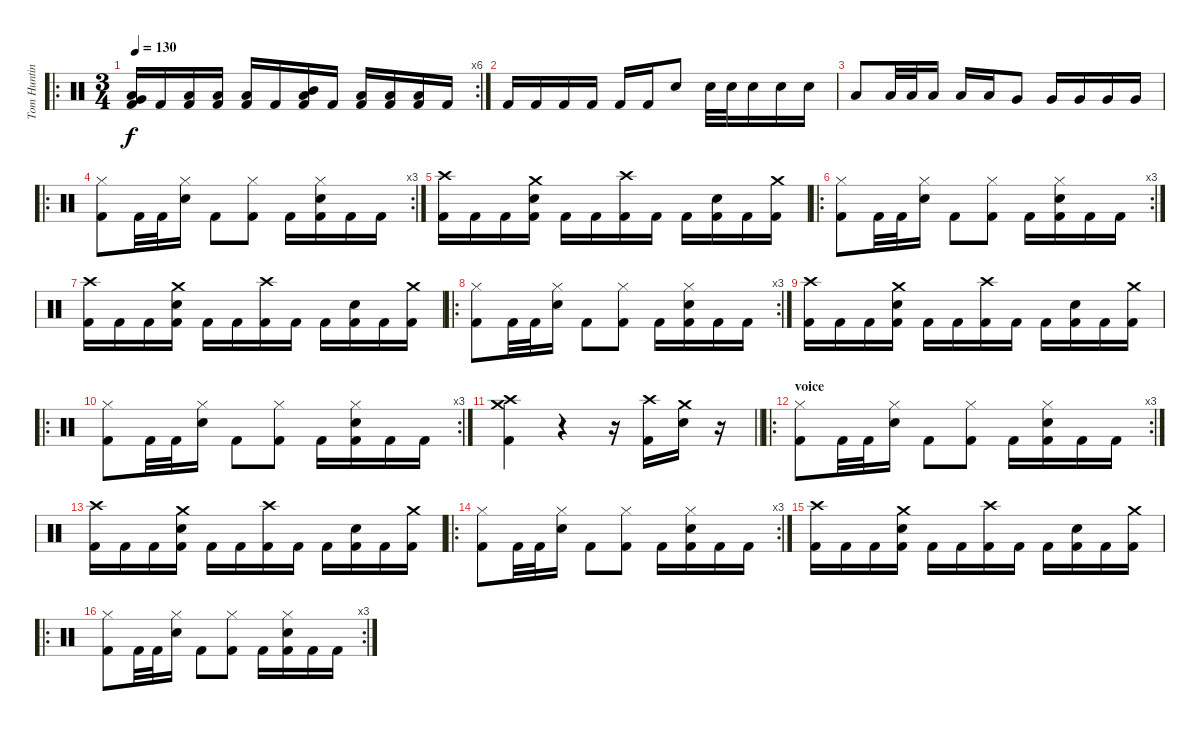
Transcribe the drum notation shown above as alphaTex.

\track ("Tom Hunting" "Tom Huntin") {instrument percussion}
\staff {score}
\articulation defaults
\ro
\rc 6
\ts (3 4)
\tempo 130
\clef neutral
\ks c
("Low Tom (hit)" "Very Low Tom (hit)" "Kick (hit) 2").16{dy f} "Kick (hit) 2".16 ("Low Tom (hit)" "Kick (hit) 2").16 ("Low Tom (hit)" "Kick (hit) 2").16 ("Low Tom (hit)" "Kick (hit) 2").16 "Kick (hit) 2".16 ("Low Tom (hit)" "Mid Tom (hit)" "Kick (hit) 2").16 "Kick (hit) 2".16 ("Low Tom (hit)" "Kick (hit) 2").16 ("Low Tom (hit)" "Kick (hit) 2").16 ("Low Tom (hit)" "Kick (hit) 2").16 "Kick (hit) 2".16 |
"Kick (hit) 2".16 "Kick (hit) 2".16 "Kick (hit) 2".16 "Kick (hit) 2".16 "Kick (hit) 2".16 "Kick (hit) 2".16 "Electric Snare (hit)".8 "Electric Snare (hit)".32 "Electric Snare (hit)".32 "Electric Snare (hit)".16 "Electric Snare (hit)".16 "Electric Snare (hit)".16 |
"Low Tom (hit)".8 "Low Tom (hit)".32 "Low Tom (hit)".32 "Low Tom (hit)".16 "Low Tom (hit)".16 "Low Tom (hit)".16 "Very Low Tom (hit)".8 "Very Low Tom (hit)".16 "Very Low Tom (hit)".16 "Very Low Tom (hit)".16 "Very Low Tom (hit)".16 |
\ro
\rc 3
("Hi-Hat (closed)" "Kick (hit) 2").8 "Kick (hit) 2".32 "Kick (hit) 2".32 ("Hi-Hat (closed)" "Electric Snare (hit)").16 "Kick (hit) 2".8 ("Hi-Hat (closed)" "Kick (hit) 2").8 "Kick (hit) 2".16 ("Hi-Hat (closed)" "Electric Snare (hit)" "Kick (hit) 2").16 "Kick (hit) 2".16 "Kick (hit) 2".16 |
("Crash high (hit)" "Kick (hit) 2").16 "Kick (hit) 2".16 "Kick (hit) 2".16 ("Crash medium (hit)" "Electric Snare (hit)" "Kick (hit) 2").16 "Kick (hit) 2".16 "Kick (hit) 2".16 ("Crash high (hit)" "Kick (hit) 2").16 "Kick (hit) 2".16 "Kick (hit) 2".16 ("Electric Snare (hit)" "Kick (hit) 2").16 "Kick (hit) 2".16 ("Crash medium (hit)" "Kick (hit) 2").16 |
\ro
\rc 3
("Hi-Hat (closed)" "Kick (hit) 2").8 "Kick (hit) 2".32 "Kick (hit) 2".32 ("Hi-Hat (closed)" "Electric Snare (hit)").16 "Kick (hit) 2".8 ("Hi-Hat (closed)" "Kick (hit) 2").8 "Kick (hit) 2".16 ("Hi-Hat (closed)" "Electric Snare (hit)" "Kick (hit) 2").16 "Kick (hit) 2".16 "Kick (hit) 2".16 |
("Crash high (hit)" "Kick (hit) 2").16 "Kick (hit) 2".16 "Kick (hit) 2".16 ("Crash medium (hit)" "Electric Snare (hit)" "Kick (hit) 2").16 "Kick (hit) 2".16 "Kick (hit) 2".16 ("Crash high (hit)" "Kick (hit) 2").16 "Kick (hit) 2".16 "Kick (hit) 2".16 ("Electric Snare (hit)" "Kick (hit) 2").16 "Kick (hit) 2".16 ("Crash medium (hit)" "Kick (hit) 2").16 |
\ro
\rc 3
("Hi-Hat (closed)" "Kick (hit) 2").8 "Kick (hit) 2".32 "Kick (hit) 2".32 ("Hi-Hat (closed)" "Electric Snare (hit)").16 "Kick (hit) 2".8 ("Hi-Hat (closed)" "Kick (hit) 2").8 "Kick (hit) 2".16 ("Hi-Hat (closed)" "Electric Snare (hit)" "Kick (hit) 2").16 "Kick (hit) 2".16 "Kick (hit) 2".16 |
("Crash high (hit)" "Kick (hit) 2").16 "Kick (hit) 2".16 "Kick (hit) 2".16 ("Crash medium (hit)" "Electric Snare (hit)" "Kick (hit) 2").16 "Kick (hit) 2".16 "Kick (hit) 2".16 ("Crash high (hit)" "Kick (hit) 2").16 "Kick (hit) 2".16 "Kick (hit) 2".16 ("Electric Snare (hit)" "Kick (hit) 2").16 "Kick (hit) 2".16 ("Crash medium (hit)" "Kick (hit) 2").16 |
\ro
\rc 3
("Hi-Hat (closed)" "Kick (hit) 2").8 "Kick (hit) 2".32 "Kick (hit) 2".32 ("Hi-Hat (closed)" "Electric Snare (hit)").16 "Kick (hit) 2".8 ("Hi-Hat (closed)" "Kick (hit) 2").8 "Kick (hit) 2".16 ("Hi-Hat (closed)" "Electric Snare (hit)" "Kick (hit) 2").16 "Kick (hit) 2".16 "Kick (hit) 2".16 |
\barLineRight lightlight
("Crash medium (hit)" "Crash high (hit)" "Kick (hit) 2").4 r.4 r.16 ("Crash high (hit)" "Kick (hit) 2").16 ("Crash medium (hit)" "Electric Snare (hit)").16 r.16 |
\ro
\rc 3
\section ("" "voice")
("Hi-Hat (closed)" "Kick (hit) 2").8 "Kick (hit) 2".32 "Kick (hit) 2".32 ("Hi-Hat (closed)" "Electric Snare (hit)").16 "Kick (hit) 2".8 ("Hi-Hat (closed)" "Kick (hit) 2").8 "Kick (hit) 2".16 ("Hi-Hat (closed)" "Electric Snare (hit)" "Kick (hit) 2").16 "Kick (hit) 2".16 "Kick (hit) 2".16 |
("Crash high (hit)" "Kick (hit) 2").16 "Kick (hit) 2".16 "Kick (hit) 2".16 ("Crash medium (hit)" "Electric Snare (hit)" "Kick (hit) 2").16 "Kick (hit) 2".16 "Kick (hit) 2".16 ("Crash high (hit)" "Kick (hit) 2").16 "Kick (hit) 2".16 "Kick (hit) 2".16 ("Electric Snare (hit)" "Kick (hit) 2").16 "Kick (hit) 2".16 ("Crash medium (hit)" "Kick (hit) 2").16 |
\ro
\rc 3
("Hi-Hat (closed)" "Kick (hit) 2").8 "Kick (hit) 2".32 "Kick (hit) 2".32 ("Hi-Hat (closed)" "Electric Snare (hit)").16 "Kick (hit) 2".8 ("Hi-Hat (closed)" "Kick (hit) 2").8 "Kick (hit) 2".16 ("Hi-Hat (closed)" "Electric Snare (hit)" "Kick (hit) 2").16 "Kick (hit) 2".16 "Kick (hit) 2".16 |
("Crash high (hit)" "Kick (hit) 2").16 "Kick (hit) 2".16 "Kick (hit) 2".16 ("Crash medium (hit)" "Electric Snare (hit)" "Kick (hit) 2").16 "Kick (hit) 2".16 "Kick (hit) 2".16 ("Crash high (hit)" "Kick (hit) 2").16 "Kick (hit) 2".16 "Kick (hit) 2".16 ("Electric Snare (hit)" "Kick (hit) 2").16 "Kick (hit) 2".16 ("Crash medium (hit)" "Kick (hit) 2").16 |
\ro
\rc 3
("Hi-Hat (closed)" "Kick (hit) 2").8 "Kick (hit) 2".32 "Kick (hit) 2".32 ("Hi-Hat (closed)" "Electric Snare (hit)").16 "Kick (hit) 2".8 ("Hi-Hat (closed)" "Kick (hit) 2").8 "Kick (hit) 2".16 ("Hi-Hat (closed)" "Electric Snare (hit)" "Kick (hit) 2").16 "Kick (hit) 2".16 "Kick (hit) 2".16
